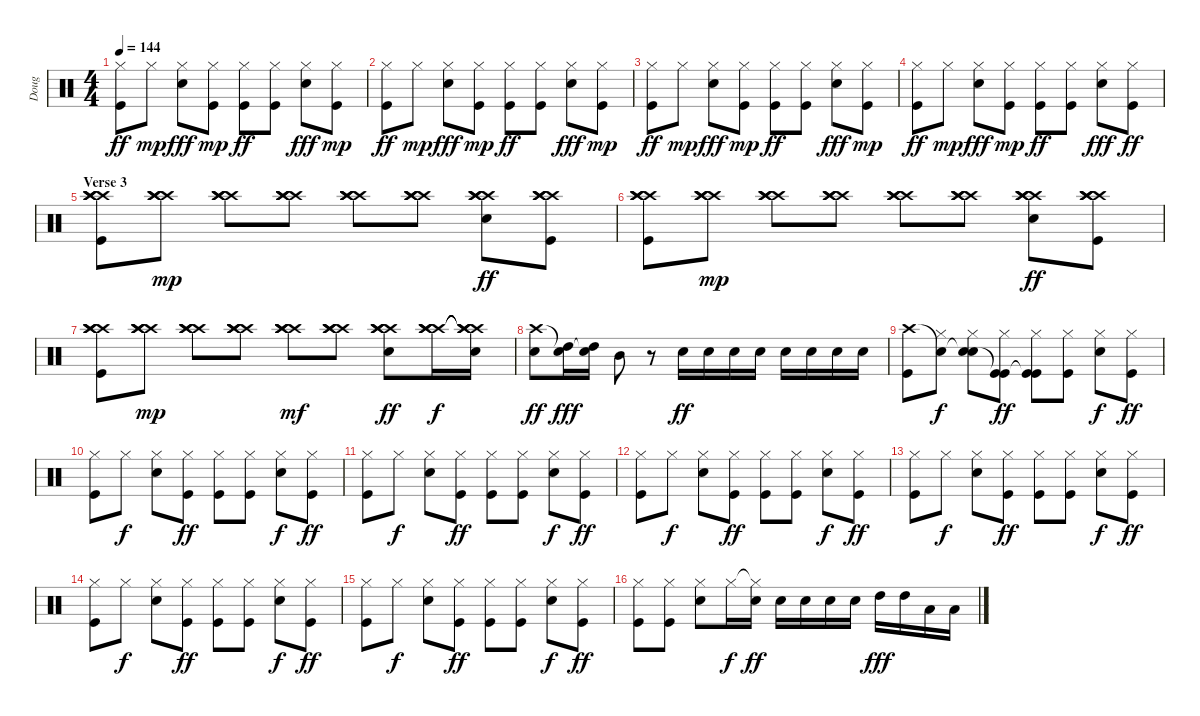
\track ("Doug" "Doug") {instrument percussion}
\staff {score}
\articulation defaults
\ts (4 4)
\tempo 144
\clef neutral
\ks c
("Hi-Hat (closed)" "Kick (hit)").8{dy ff} "Hi-Hat (closed)".8{dy mp} ("Hi-Hat (closed)" "Electric Snare (hit)").8{dy fff} ("Hi-Hat (closed)" "Kick (hit)").8{dy mp} ("Hi-Hat (closed)" "Kick (hit)").8{dy ff} ("Hi-Hat (closed)" "Kick (hit)").8 ("Hi-Hat (closed)" "Electric Snare (hit)").8{dy fff} ("Hi-Hat (closed)" "Kick (hit)").8{dy mp} |
("Hi-Hat (closed)" "Kick (hit)").8{dy ff} "Hi-Hat (closed)".8{dy mp} ("Hi-Hat (closed)" "Electric Snare (hit)").8{dy fff} ("Hi-Hat (closed)" "Kick (hit)").8{dy mp} ("Hi-Hat (closed)" "Kick (hit)").8{dy ff} ("Hi-Hat (closed)" "Kick (hit)").8 ("Hi-Hat (closed)" "Electric Snare (hit)").8{dy fff} ("Hi-Hat (closed)" "Kick (hit)").8{dy mp} |
("Hi-Hat (closed)" "Kick (hit)").8{dy ff} "Hi-Hat (closed)".8{dy mp} ("Hi-Hat (closed)" "Electric Snare (hit)").8{dy fff} ("Hi-Hat (closed)" "Kick (hit)").8{dy mp} ("Hi-Hat (closed)" "Kick (hit)").8{dy ff} ("Hi-Hat (closed)" "Kick (hit)").8 ("Hi-Hat (closed)" "Electric Snare (hit)").8{dy fff} ("Hi-Hat (closed)" "Kick (hit)").8{dy mp} |
("Hi-Hat (closed)" "Kick (hit)").8{dy ff} "Hi-Hat (closed)".8{dy mp} ("Hi-Hat (closed)" "Electric Snare (hit)").8{dy fff} ("Hi-Hat (closed)" "Kick (hit)").8{dy mp} ("Hi-Hat (closed)" "Kick (hit)").8{dy ff} ("Hi-Hat (closed)" "Kick (hit)").8 ("Hi-Hat (closed)" "Electric Snare (hit)").8{dy fff} ("Hi-Hat (closed)" "Kick (hit)").8{dy ff} |
\section ("" "Verse 3")
("Crash high (hit)" "Crash high (hit)" "Crash high (hit)" "Crash high (hit)" "Kick (hit)").8 ("Crash high (hit)" "Crash high (hit)" "Crash high (hit)" "Crash high (hit)").8{dy mp} ("Crash high (hit)" "Crash high (hit)" "Crash high (hit)" "Crash high (hit)").8 ("Crash high (hit)" "Crash high (hit)" "Crash high (hit)" "Crash high (hit)").8 ("Crash high (hit)" "Crash high (hit)" "Crash high (hit)" "Crash high (hit)").8 ("Crash high (hit)" "Crash high (hit)" "Crash high (hit)" "Crash high (hit)").8 ("Crash high (hit)" "Crash high (hit)" "Crash high (hit)" "Crash high (hit)" "Electric Snare (hit)").8{dy ff} ("Crash high (hit)" "Crash high (hit)" "Crash high (hit)" "Crash high (hit)" "Kick (hit)").8 |
("Crash high (hit)" "Crash high (hit)" "Crash high (hit)" "Crash high (hit)" "Kick (hit)").8 ("Crash high (hit)" "Crash high (hit)" "Crash high (hit)" "Crash high (hit)").8{dy mp} ("Crash high (hit)" "Crash high (hit)" "Crash high (hit)" "Crash high (hit)").8 ("Crash high (hit)" "Crash high (hit)" "Crash high (hit)" "Crash high (hit)").8 ("Crash high (hit)" "Crash high (hit)" "Crash high (hit)" "Crash high (hit)").8 ("Crash high (hit)" "Crash high (hit)" "Crash high (hit)" "Crash high (hit)").8 ("Crash high (hit)" "Crash high (hit)" "Crash high (hit)" "Crash high (hit)" "Electric Snare (hit)").8{dy ff} ("Crash high (hit)" "Crash high (hit)" "Crash high (hit)" "Crash high (hit)" "Kick (hit)").8 |
("Crash high (hit)" "Crash high (hit)" "Crash high (hit)" "Crash high (hit)" "Kick (hit)").8 ("Crash high (hit)" "Crash high (hit)" "Crash high (hit)" "Crash high (hit)").8{dy mp} ("Crash high (hit)" "Crash high (hit)" "Crash high (hit)" "Crash high (hit)").8 ("Crash high (hit)" "Crash high (hit)" "Crash high (hit)" "Crash high (hit)").8 ("Crash high (hit)" "Crash high (hit)" "Crash high (hit)" "Crash high (hit)").8{dy mf} ("Crash high (hit)" "Crash high (hit)" "Crash high (hit)" "Crash high (hit)").8 ("Crash high (hit)" "Crash high (hit)" "Crash high (hit)" "Crash high (hit)" "Electric Snare (hit)").8{dy ff} ("Crash high (hit)" "Crash high (hit)" "Crash high (hit)" "Crash high (hit)").16{dy f} ("Crash high (hit)"{t} "Crash high (hit)"{t} "Crash high (hit)"{t} "Crash high (hit)"{t} "Electric Snare (hit)").16 |
("Crash high (hit)" "Electric Snare (hit)").8{dy ff} ("Snare (hit)"{t} "High Tom (hit)").16{dy fff} ("Snare (hit)"{t} "High Tom (hit)").16 "Mid Tom (hit)".8 r.8 "Electric Snare (hit)".16{dy ff} "Electric Snare (hit)".16 "Electric Snare (hit)".16 "Electric Snare (hit)".16 "Electric Snare (hit)".16 "Electric Snare (hit)".16 "Electric Snare (hit)".16 "Electric Snare (hit)".16 |
("Crash high (hit)" "Kick (hit)").8 ("Snare (hit)"{t} "Hi-Hat (closed)").8{dy f} ("Electric Snare (hit)"{t} "Hi-Hat (closed)" "Electric Snare (hit)").8 ("Kick (hit)"{t} "Hi-Hat (closed)" "Kick (hit)").8{dy ff} ("Kick (hit)"{t} "Hi-Hat (closed)" "Kick (hit)").8 ("Hi-Hat (closed)" "Kick (hit)").8 ("Hi-Hat (closed)" "Electric Snare (hit)").8{dy f} ("Hi-Hat (closed)" "Kick (hit)").8{dy ff} |
("Hi-Hat (closed)" "Kick (hit)").8 "Hi-Hat (closed)".8{dy f} ("Hi-Hat (closed)" "Electric Snare (hit)").8 ("Hi-Hat (closed)" "Kick (hit)").8{dy ff} ("Hi-Hat (closed)" "Kick (hit)").8 ("Hi-Hat (closed)" "Kick (hit)").8 ("Hi-Hat (closed)" "Electric Snare (hit)").8{dy f} ("Hi-Hat (closed)" "Kick (hit)").8{dy ff} |
("Hi-Hat (closed)" "Kick (hit)").8 "Hi-Hat (closed)".8{dy f} ("Hi-Hat (closed)" "Electric Snare (hit)").8 ("Hi-Hat (closed)" "Kick (hit)").8{dy ff} ("Hi-Hat (closed)" "Kick (hit)").8 ("Hi-Hat (closed)" "Kick (hit)").8 ("Hi-Hat (closed)" "Electric Snare (hit)").8{dy f} ("Hi-Hat (closed)" "Kick (hit)").8{dy ff} |
("Hi-Hat (closed)" "Kick (hit)").8 "Hi-Hat (closed)".8{dy f} ("Hi-Hat (closed)" "Electric Snare (hit)").8 ("Hi-Hat (closed)" "Kick (hit)").8{dy ff} ("Hi-Hat (closed)" "Kick (hit)").8 ("Hi-Hat (closed)" "Kick (hit)").8 ("Hi-Hat (closed)" "Electric Snare (hit)").8{dy f} ("Hi-Hat (closed)" "Kick (hit)").8{dy ff} |
("Hi-Hat (closed)" "Kick (hit)").8 "Hi-Hat (closed)".8{dy f} ("Hi-Hat (closed)" "Electric Snare (hit)").8 ("Hi-Hat (closed)" "Kick (hit)").8{dy ff} ("Hi-Hat (closed)" "Kick (hit)").8 ("Hi-Hat (closed)" "Kick (hit)").8 ("Hi-Hat (closed)" "Electric Snare (hit)").8{dy f} ("Hi-Hat (closed)" "Kick (hit)").8{dy ff} |
("Hi-Hat (closed)" "Kick (hit)").8 "Hi-Hat (closed)".8{dy f} ("Hi-Hat (closed)" "Electric Snare (hit)").8 ("Hi-Hat (closed)" "Kick (hit)").8{dy ff} ("Hi-Hat (closed)" "Kick (hit)").8 ("Hi-Hat (closed)" "Kick (hit)").8 ("Hi-Hat (closed)" "Electric Snare (hit)").8{dy f} ("Hi-Hat (closed)" "Kick (hit)").8{dy ff} |
("Hi-Hat (closed)" "Kick (hit)").8 "Hi-Hat (closed)".8{dy f} ("Hi-Hat (closed)" "Electric Snare (hit)").8 ("Hi-Hat (closed)" "Kick (hit)").8{dy ff} ("Hi-Hat (closed)" "Kick (hit)").8 ("Hi-Hat (closed)" "Kick (hit)").8 ("Hi-Hat (closed)" "Electric Snare (hit)").8{dy f} ("Hi-Hat (closed)" "Kick (hit)").8{dy ff} |
("Hi-Hat (closed)" "Kick (hit)").8 ("Hi-Hat (closed)" "Kick (hit)").8 ("Hi-Hat (closed)" "Electric Snare (hit)").8 "Hi-Hat (closed)".16{dy f} ("Hi-Hat (closed)"{t} "Electric Snare (hit)").16{dy ff} "Electric Snare (hit)".16 "Electric Snare (hit)".16 "Electric Snare (hit)".16 "Electric Snare (hit)".16 "High Tom (hit)".16{dy fff} "High Tom (hit)".16 "Low Tom (hit)".16 "Low Tom (hit)".16
